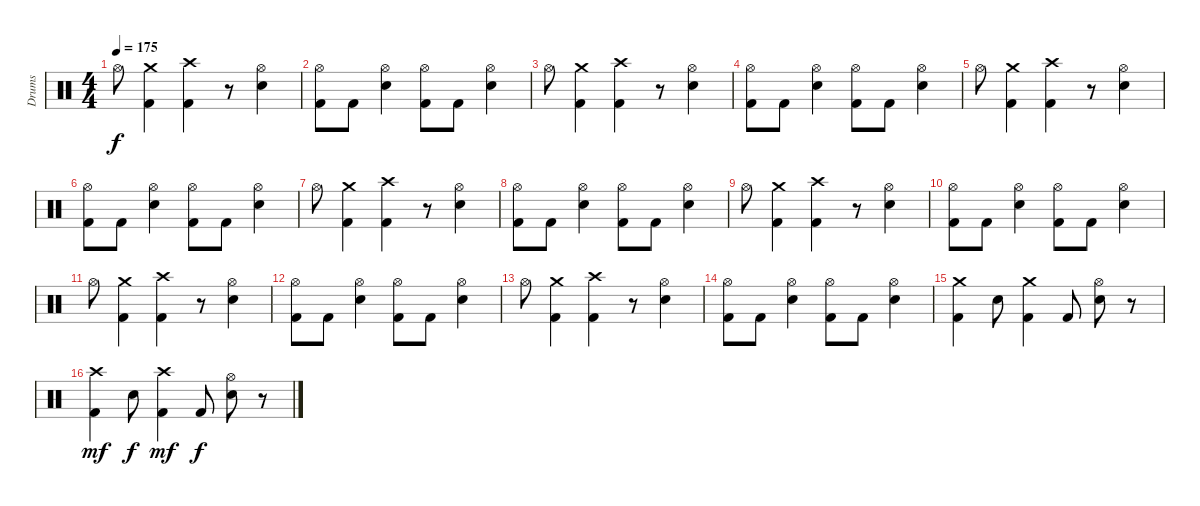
\track ("Drums" "Drums") {instrument percussion}
\staff {score}
\articulation defaults
\ts (4 4)
\tempo 175
\clef neutral
\ks c "Hi-Hat (open)".8{dy f}
("Crash medium (hit)" "Kick (hit) 2").4 ("Crash high (hit)" "Kick (hit) 2").4 r.8 ("Hi-Hat (open)" "Electric Snare (hit)").4 |
("Hi-Hat (open)" "Kick (hit) 2").8 "Kick (hit) 2".8 ("Hi-Hat (open)" "Electric Snare (hit)").4 ("Hi-Hat (open)" "Kick (hit) 2").8 "Kick (hit) 2".8 ("Hi-Hat (open)" "Electric Snare (hit)").4 |
"Hi-Hat (open)".8 ("Crash medium (hit)" "Kick (hit) 2").4 ("Crash high (hit)" "Kick (hit) 2").4 r.8 ("Hi-Hat (open)" "Electric Snare (hit)").4 |
("Hi-Hat (open)" "Kick (hit) 2").8 "Kick (hit) 2".8 ("Hi-Hat (open)" "Electric Snare (hit)").4 ("Hi-Hat (open)" "Kick (hit) 2").8 "Kick (hit) 2".8 ("Hi-Hat (open)" "Electric Snare (hit)").4 |
"Hi-Hat (open)".8 ("Crash medium (hit)" "Kick (hit) 2").4 ("Crash high (hit)" "Kick (hit) 2").4 r.8 ("Hi-Hat (open)" "Electric Snare (hit)").4 |
("Hi-Hat (open)" "Kick (hit) 2").8 "Kick (hit) 2".8 ("Hi-Hat (open)" "Electric Snare (hit)").4 ("Hi-Hat (open)" "Kick (hit) 2").8 "Kick (hit) 2".8 ("Hi-Hat (open)" "Electric Snare (hit)").4 |
"Hi-Hat (open)".8 ("Crash medium (hit)" "Kick (hit) 2").4 ("Crash high (hit)" "Kick (hit) 2").4 r.8 ("Hi-Hat (open)" "Electric Snare (hit)").4 |
("Hi-Hat (open)" "Kick (hit) 2").8 "Kick (hit) 2".8 ("Hi-Hat (open)" "Electric Snare (hit)").4 ("Hi-Hat (open)" "Kick (hit) 2").8 "Kick (hit) 2".8 ("Hi-Hat (open)" "Electric Snare (hit)").4 |
"Hi-Hat (open)".8 ("Crash medium (hit)" "Kick (hit) 2").4 ("Crash high (hit)" "Kick (hit) 2").4 r.8 ("Hi-Hat (open)" "Electric Snare (hit)").4 |
("Hi-Hat (open)" "Kick (hit) 2").8 "Kick (hit) 2".8 ("Hi-Hat (open)" "Electric Snare (hit)").4 ("Hi-Hat (open)" "Kick (hit) 2").8 "Kick (hit) 2".8 ("Hi-Hat (open)" "Electric Snare (hit)").4 |
"Hi-Hat (open)".8 ("Crash medium (hit)" "Kick (hit) 2").4 ("Crash high (hit)" "Kick (hit) 2").4 r.8 ("Hi-Hat (open)" "Electric Snare (hit)").4 |
("Hi-Hat (open)" "Kick (hit) 2").8 "Kick (hit) 2".8 ("Hi-Hat (open)" "Electric Snare (hit)").4 ("Hi-Hat (open)" "Kick (hit) 2").8 "Kick (hit) 2".8 ("Hi-Hat (open)" "Electric Snare (hit)").4 |
"Hi-Hat (open)".8 ("Crash medium (hit)" "Kick (hit) 2").4 ("Crash high (hit)" "Kick (hit) 2").4 r.8 ("Hi-Hat (open)" "Electric Snare (hit)").4 |
("Hi-Hat (open)" "Kick (hit) 2").8 "Kick (hit) 2".8 ("Hi-Hat (open)" "Electric Snare (hit)").4 ("Hi-Hat (open)" "Kick (hit) 2").8 "Kick (hit) 2".8 ("Hi-Hat (open)" "Electric Snare (hit)").4 |
("Crash medium (hit)" "Kick (hit) 2").4 "Electric Snare (hit)".8 ("Crash medium (hit)" "Kick (hit) 2").4 "Kick (hit) 2".8 ("Hi-Hat (open)" "Electric Snare (hit)").8 r.8 |
("Crash high (hit)" "Kick (hit) 2").4{dy mf} "Electric Snare (hit)".8{dy f} ("Crash high (hit)" "Kick (hit) 2").4{dy mf} "Kick (hit) 2".8{dy f} ("Hi-Hat (open)" "Electric Snare (hit)").8 r.8
